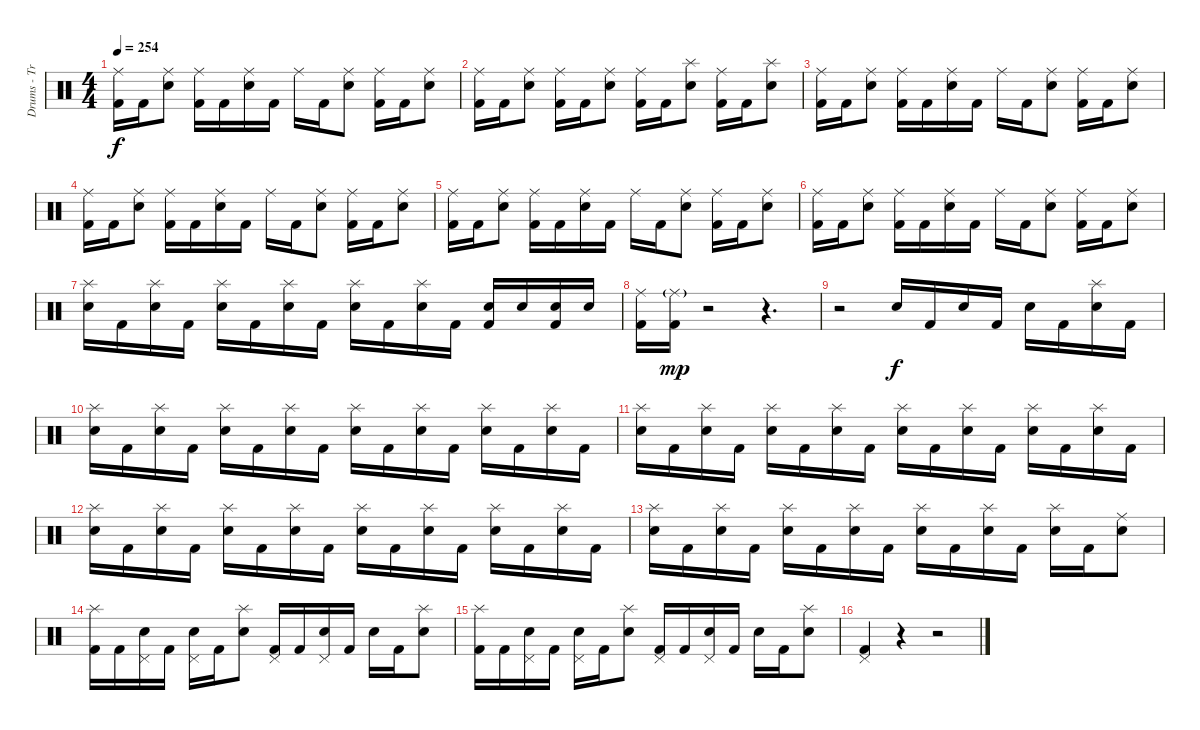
\track ("Drums - Travis Barker" "Drums - Tr") {instrument percussion}
\staff {score}
\articulation defaults
\ts (4 4)
\tempo 254
\clef neutral
\ks c
("Ride (middle)" "Kick (hit) 2").16{dy f} "Kick (hit) 2".16 ("Ride (middle)" "Electric Snare (hit)").8 ("Ride (middle)" "Kick (hit) 2").16 "Kick (hit) 2".16 ("Ride (middle)" "Electric Snare (hit)").16 "Kick (hit) 2".16 "Ride (middle)".16 "Kick (hit) 2".16 ("Ride (middle)" "Electric Snare (hit)").8 ("Ride (middle)" "Kick (hit) 2").16 "Kick (hit) 2".16 ("Ride (middle)" "Electric Snare (hit)").8 |
("Ride (middle)" "Kick (hit) 2").16 "Kick (hit) 2".16 ("Ride (middle)" "Electric Snare (hit)").8 ("Ride (middle)" "Kick (hit) 2").16 "Kick (hit) 2".16 ("Ride (middle)" "Electric Snare (hit)").8 ("Ride (middle)" "Kick (hit) 2").16 "Kick (hit) 2".16 ("Splash (hit)" "Electric Snare (hit)").8 ("Ride (middle)" "Kick (hit) 2").16 "Kick (hit) 2".16 ("Splash (hit)" "Electric Snare (hit)").8 |
("Ride (middle)" "Kick (hit) 2").16 "Kick (hit) 2".16 ("Ride (middle)" "Electric Snare (hit)").8 ("Ride (middle)" "Kick (hit) 2").16 "Kick (hit) 2".16 ("Ride (middle)" "Electric Snare (hit)").16 "Kick (hit) 2".16 "Ride (middle)".16 "Kick (hit) 2".16 ("Ride (middle)" "Electric Snare (hit)").8 ("Ride (middle)" "Kick (hit) 2").16 "Kick (hit) 2".16 ("Ride (middle)" "Electric Snare (hit)").8 |
("Ride (middle)" "Kick (hit) 2").16 "Kick (hit) 2".16 ("Ride (middle)" "Electric Snare (hit)").8 ("Ride (middle)" "Kick (hit) 2").16 "Kick (hit) 2".16 ("Ride (middle)" "Electric Snare (hit)").16 "Kick (hit) 2".16 "Ride (middle)".16 "Kick (hit) 2".16 ("Ride (middle)" "Electric Snare (hit)").8 ("Ride (middle)" "Kick (hit) 2").16 "Kick (hit) 2".16 ("Ride (middle)" "Electric Snare (hit)").8 |
("Ride (middle)" "Kick (hit) 2").16 "Kick (hit) 2".16 ("Ride (middle)" "Electric Snare (hit)").8 ("Ride (middle)" "Kick (hit) 2").16 "Kick (hit) 2".16 ("Ride (middle)" "Electric Snare (hit)").16 "Kick (hit) 2".16 "Ride (middle)".16 "Kick (hit) 2".16 ("Ride (middle)" "Electric Snare (hit)").8 ("Ride (middle)" "Kick (hit) 2").16 "Kick (hit) 2".16 ("Ride (middle)" "Electric Snare (hit)").8 |
("Ride (middle)" "Kick (hit) 2").16 "Kick (hit) 2".16 ("Ride (middle)" "Electric Snare (hit)").8 ("Ride (middle)" "Kick (hit) 2").16 "Kick (hit) 2".16 ("Ride (middle)" "Electric Snare (hit)").16 "Kick (hit) 2".16 "Ride (middle)".16 "Kick (hit) 2".16 ("Ride (middle)" "Electric Snare (hit)").8 ("Ride (middle)" "Kick (hit) 2").16 "Kick (hit) 2".16 ("Ride (middle)" "Electric Snare (hit)").8 |
("Splash (hit)" "Electric Snare (hit)").16 "Kick (hit) 2".16 ("Splash (hit)" "Electric Snare (hit)").16 "Kick (hit) 2".16 ("Splash (hit)" "Electric Snare (hit)").16 "Kick (hit) 2".16 ("Splash (hit)" "Electric Snare (hit)").16 "Kick (hit) 2".16 ("Splash (hit)" "Electric Snare (hit)").16 "Kick (hit) 2".16 ("Splash (hit)" "Electric Snare (hit)").16 "Kick (hit) 2".16 ("Electric Snare (hit)" "Kick (hit) 2").16 "Electric Snare (hit)".16 ("Electric Snare (hit)" "Kick (hit) 2").16 "Electric Snare (hit)".16 |
("Ride (middle)" "Kick (hit) 2").16 ("Ride (middle)"{g} "Kick (hit) 2").16{dy mp} r.2 r.4{d} |
r.2 "Electric Snare (hit)".16{dy f} "Kick (hit) 2".16 "Electric Snare (hit)".16 "Kick (hit) 2".16 "Electric Snare (hit)".16 "Kick (hit) 2".16 ("Splash (hit)" "Electric Snare (hit)").16 "Kick (hit) 2".16 |
("Splash (hit)" "Electric Snare (hit)").16 "Kick (hit) 2".16 ("Splash (hit)" "Electric Snare (hit)").16 "Kick (hit) 2".16 ("Splash (hit)" "Electric Snare (hit)").16 "Kick (hit) 2".16 ("Splash (hit)" "Electric Snare (hit)").16 "Kick (hit) 2".16 ("Splash (hit)" "Electric Snare (hit)").16 "Kick (hit) 2".16 ("Splash (hit)" "Electric Snare (hit)").16 "Kick (hit) 2".16 ("Splash (hit)" "Electric Snare (hit)").16 "Kick (hit) 2".16 ("Splash (hit)" "Electric Snare (hit)").16 "Kick (hit) 2".16 |
("Splash (hit)" "Electric Snare (hit)").16 "Kick (hit) 2".16 ("Splash (hit)" "Electric Snare (hit)").16 "Kick (hit) 2".16 ("Splash (hit)" "Electric Snare (hit)").16 "Kick (hit) 2".16 ("Splash (hit)" "Electric Snare (hit)").16 "Kick (hit) 2".16 ("Splash (hit)" "Electric Snare (hit)").16 "Kick (hit) 2".16 ("Splash (hit)" "Electric Snare (hit)").16 "Kick (hit) 2".16 ("Splash (hit)" "Electric Snare (hit)").16 "Kick (hit) 2".16 ("Splash (hit)" "Electric Snare (hit)").16 "Kick (hit) 2".16 |
("Splash (hit)" "Electric Snare (hit)").16 "Kick (hit) 2".16 ("Splash (hit)" "Electric Snare (hit)").16 "Kick (hit) 2".16 ("Splash (hit)" "Electric Snare (hit)").16 "Kick (hit) 2".16 ("Splash (hit)" "Electric Snare (hit)").16 "Kick (hit) 2".16 ("Splash (hit)" "Electric Snare (hit)").16 "Kick (hit) 2".16 ("Splash (hit)" "Electric Snare (hit)").16 "Kick (hit) 2".16 ("Splash (hit)" "Electric Snare (hit)").16 "Kick (hit) 2".16 ("Splash (hit)" "Electric Snare (hit)").16 "Kick (hit) 2".16 |
("Splash (hit)" "Electric Snare (hit)").16 "Kick (hit) 2".16 ("Splash (hit)" "Electric Snare (hit)").16 "Kick (hit) 2".16 ("Splash (hit)" "Electric Snare (hit)").16 "Kick (hit) 2".16 ("Splash (hit)" "Electric Snare (hit)").16 "Kick (hit) 2".16 ("Splash (hit)" "Electric Snare (hit)").16 "Kick (hit) 2".16 ("Splash (hit)" "Electric Snare (hit)").16 "Kick (hit) 2".16 ("Splash (hit)" "Electric Snare (hit)").16 "Kick (hit) 2".16 ("Ride (middle)" "Electric Snare (hit)").8 |
("Splash (hit)" "Kick (hit) 2").16 "Kick (hit) 2".16 ("Pedal Hi-Hat (hit)" "Electric Snare (hit)").16 "Kick (hit) 2".16 ("Pedal Hi-Hat (hit)" "Electric Snare (hit)").16 "Kick (hit) 2".16 ("Splash (hit)" "Electric Snare (hit)").8 ("Pedal Hi-Hat (hit)" "Kick (hit) 2").16 "Kick (hit) 2".16 ("Pedal Hi-Hat (hit)" "Electric Snare (hit)").16 "Kick (hit) 2".16 "Electric Snare (hit)".16 "Kick (hit) 2".16 ("Splash (hit)" "Electric Snare (hit)").8 |
("Splash (hit)" "Kick (hit) 2").16 "Kick (hit) 2".16 ("Pedal Hi-Hat (hit)" "Electric Snare (hit)").16 "Kick (hit) 2".16 ("Pedal Hi-Hat (hit)" "Electric Snare (hit)").16 "Kick (hit) 2".16 ("Splash (hit)" "Electric Snare (hit)").8 ("Pedal Hi-Hat (hit)" "Kick (hit) 2").16 "Kick (hit) 2".16 ("Pedal Hi-Hat (hit)" "Electric Snare (hit)").16 "Kick (hit) 2".16 "Electric Snare (hit)".16 "Kick (hit) 2".16 ("Splash (hit)" "Electric Snare (hit)").8 |
("Pedal Hi-Hat (hit)" "Kick (hit) 2").4 r.4 r.2
